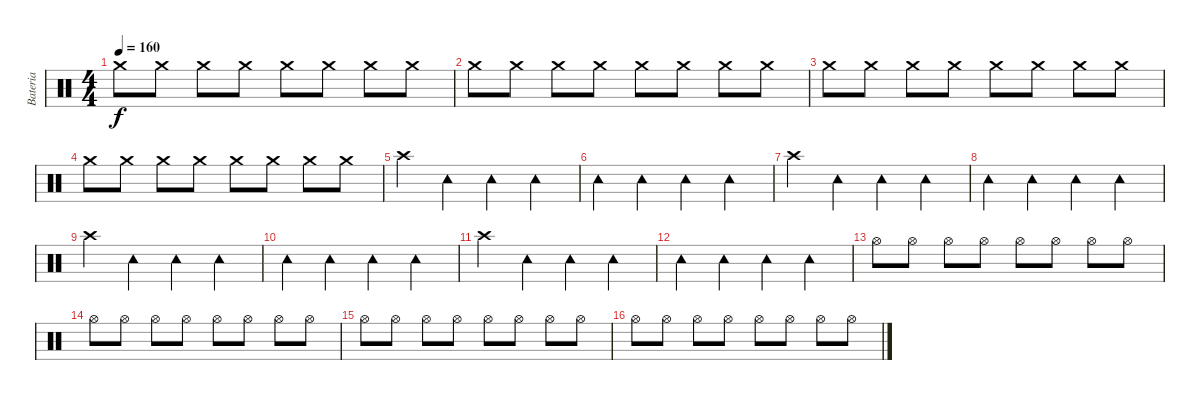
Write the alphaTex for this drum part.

\track ("Bateria" "Bateria") {instrument percussion}
\staff {score}
\articulation defaults
\ts (4 4)
\tempo 160
\clef neutral
\ks c "Crash medium (hit)".8{dy f} "Crash medium (hit)".8 "Crash medium (hit)".8 "Crash medium (hit)".8 "Crash medium (hit)".8 "Crash medium (hit)".8 "Crash medium (hit)".8 "Crash medium (hit)".8
|
"Crash medium (hit)".8 "Crash medium (hit)".8 "Crash medium (hit)".8 "Crash medium (hit)".8 "Crash medium (hit)".8 "Crash medium (hit)".8 "Crash medium (hit)".8 "Crash medium (hit)".8 |
"Crash medium (hit)".8 "Crash medium (hit)".8 "Crash medium (hit)".8 "Crash medium (hit)".8 "Crash medium (hit)".8 "Crash medium (hit)".8 "Crash medium (hit)".8 "Crash medium (hit)".8 |
"Crash medium (hit)".8 "Crash medium (hit)".8 "Crash medium (hit)".8 "Crash medium (hit)".8 "Crash medium (hit)".8 "Crash medium (hit)".8 "Crash medium (hit)".8 "Crash medium (hit)".8 |
"Crash high (hit)".4 "Tambourine (hit)".4 "Tambourine (hit)".4 "Tambourine (hit)".4 |
"Tambourine (hit)".4 "Tambourine (hit)".4 "Tambourine (hit)".4 "Tambourine (hit)".4 |
"Crash high (hit)".4 "Tambourine (hit)".4 "Tambourine (hit)".4 "Tambourine (hit)".4 |
"Tambourine (hit)".4 "Tambourine (hit)".4 "Tambourine (hit)".4 "Tambourine (hit)".4 |
"Crash high (hit)".4 "Tambourine (hit)".4 "Tambourine (hit)".4 "Tambourine (hit)".4 |
"Tambourine (hit)".4 "Tambourine (hit)".4 "Tambourine (hit)".4 "Tambourine (hit)".4 |
"Crash high (hit)".4 "Tambourine (hit)".4 "Tambourine (hit)".4 "Tambourine (hit)".4 |
"Tambourine (hit)".4 "Tambourine (hit)".4 "Tambourine (hit)".4 "Tambourine (hit)".4 |
"Hi-Hat (open)".8 "Hi-Hat (open)".8 "Hi-Hat (open)".8 "Hi-Hat (open)".8 "Hi-Hat (open)".8 "Hi-Hat (open)".8 "Hi-Hat (open)".8 "Hi-Hat (open)".8 |
"Hi-Hat (open)".8 "Hi-Hat (open)".8 "Hi-Hat (open)".8 "Hi-Hat (open)".8 "Hi-Hat (open)".8 "Hi-Hat (open)".8 "Hi-Hat (open)".8 "Hi-Hat (open)".8 |
"Hi-Hat (open)".8 "Hi-Hat (open)".8 "Hi-Hat (open)".8 "Hi-Hat (open)".8 "Hi-Hat (open)".8 "Hi-Hat (open)".8 "Hi-Hat (open)".8 "Hi-Hat (open)".8 |
"Hi-Hat (open)".8 "Hi-Hat (open)".8 "Hi-Hat (open)".8 "Hi-Hat (open)".8 "Hi-Hat (open)".8 "Hi-Hat (open)".8 "Hi-Hat (open)".8 "Hi-Hat (open)".8
